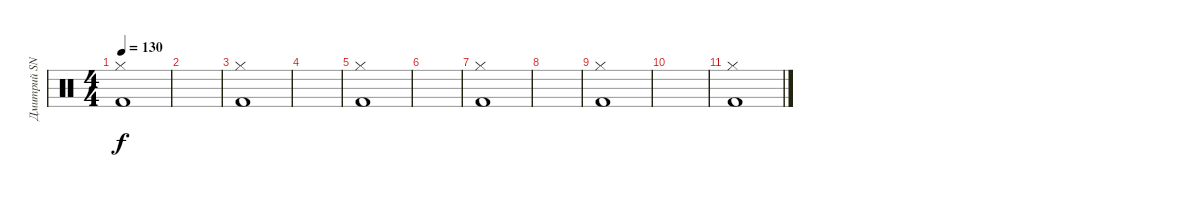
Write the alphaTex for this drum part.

\track ("Дмитрий SNAKE Хакимов" "Дмитрий SN") {instrument percussion}
\staff {score}
\articulation defaults
\ts (4 4)
\tempo 130
\clef neutral
\ks c
("Hi-Hat (closed)" "Kick (hit) 2").1{dy f} |
|
("Hi-Hat (closed)" "Kick (hit) 2").1 |
|
("Hi-Hat (closed)" "Kick (hit) 2").1 |
|
("Hi-Hat (closed)" "Kick (hit) 2").1 |
|
("Hi-Hat (closed)" "Kick (hit) 2").1 |
|
("Hi-Hat (closed)" "Kick (hit) 2").1
